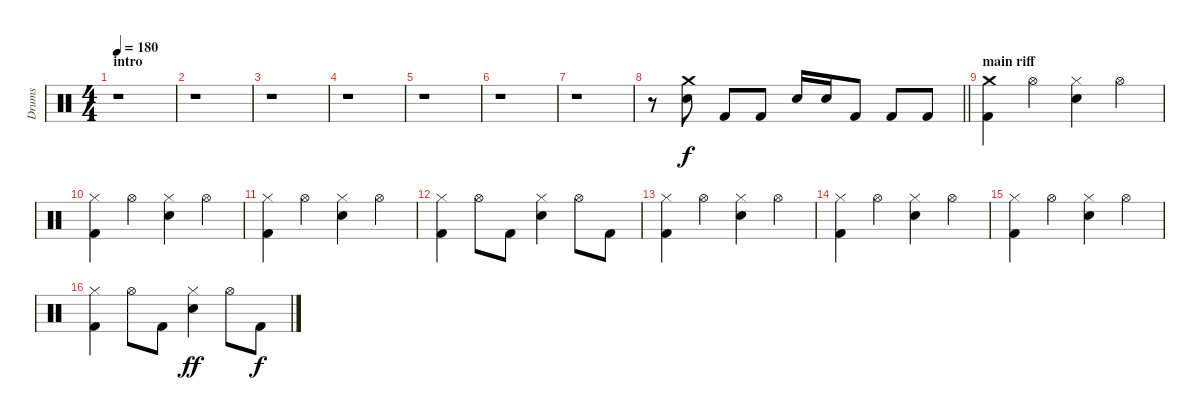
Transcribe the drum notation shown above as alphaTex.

\track ("Drums" "Drums") {instrument percussion}
\staff {score}
\articulation defaults
\ts (4 4)
\section ("" "intro")
\tempo 180
\clef neutral
\ks c
r.1{dy f} |
r.1 |
r.1 |
r.1 |
r.1 |
r.1 |
r.1 |
\barLineRight lightlight
r.8 ("Crash medium (hit)" "Snare (hit) 2").8 "Kick (hit) 2".8 "Kick (hit) 2".8 "Snare (hit) 2".16 "Snare (hit) 2".16 "Kick (hit) 2".8 "Kick (hit) 2".8 "Kick (hit) 2".8 |
\section ("" "main riff")
("Kick (hit) 2" "Crash medium (hit)").4 "Hi-Hat (open)".4 ("Hi-Hat (closed)" "Snare (hit) 2").4 "Hi-Hat (open)".4 |
("Kick (hit) 2" "Hi-Hat (closed)").4 "Hi-Hat (open)".4 ("Hi-Hat (closed)" "Snare (hit) 2").4 "Hi-Hat (open)".4 |
("Kick (hit) 2" "Hi-Hat (closed)").4 "Hi-Hat (open)".4 ("Hi-Hat (closed)" "Snare (hit) 2").4 "Hi-Hat (open)".4 |
("Kick (hit) 2" "Hi-Hat (closed)").4 "Hi-Hat (open)".8 "Kick (hit) 2".8 ("Hi-Hat (closed)" "Snare (hit) 2").4 "Hi-Hat (open)".8 "Kick (hit) 2".8 |
("Kick (hit) 2" "Hi-Hat (closed)").4 "Hi-Hat (open)".4 ("Hi-Hat (closed)" "Snare (hit) 2").4 "Hi-Hat (open)".4 |
("Kick (hit) 2" "Hi-Hat (closed)").4 "Hi-Hat (open)".4 ("Hi-Hat (closed)" "Snare (hit) 2").4 "Hi-Hat (open)".4 |
("Kick (hit) 2" "Hi-Hat (closed)").4 "Hi-Hat (open)".4 ("Hi-Hat (closed)" "Snare (hit) 2").4 "Hi-Hat (open)".4 |
("Kick (hit) 2" "Hi-Hat (closed)").4 "Hi-Hat (open)".8 "Kick (hit) 2".8 ("Hi-Hat (closed)" "Snare (hit) 2").4{dy ff} "Hi-Hat (open)".8 "Kick (hit) 2".8{dy f}
